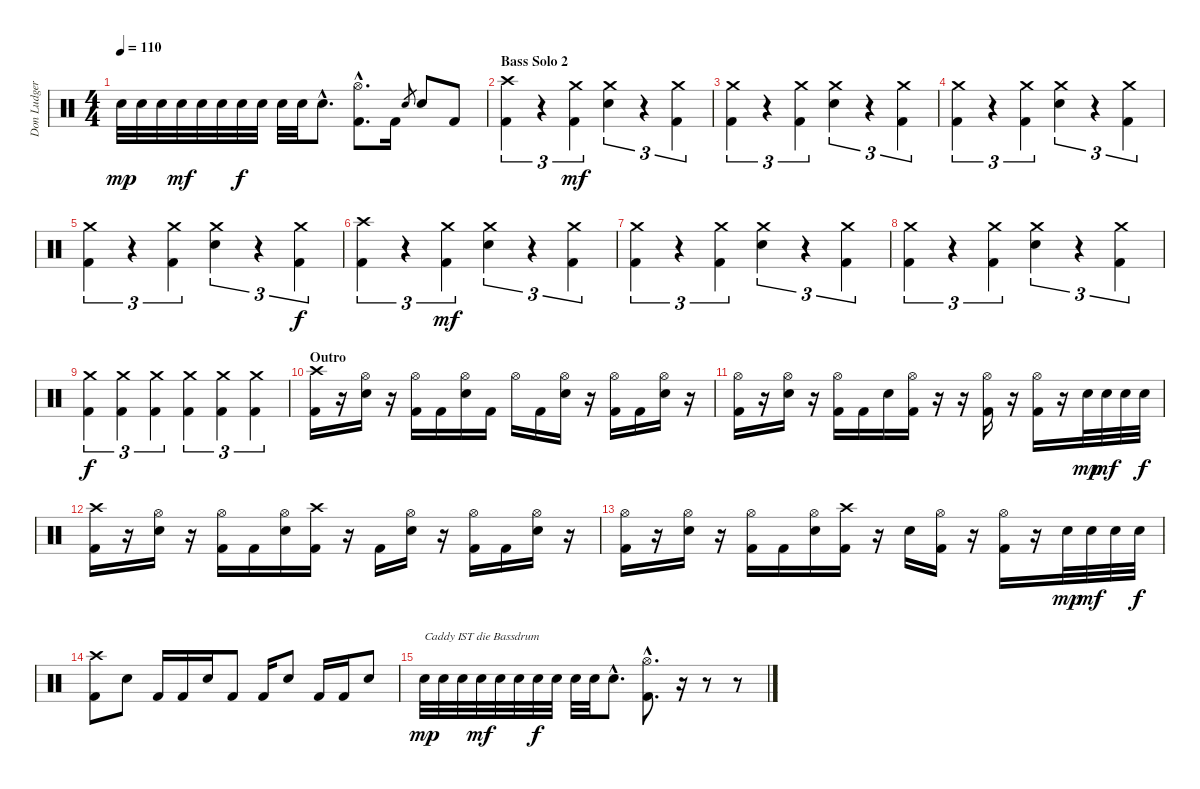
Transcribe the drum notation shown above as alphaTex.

\track ("Don Ludger" "Don Ludger") {instrument percussion}
\staff {score}
\articulation defaults
\ts (4 4)
\tempo 110
\clef neutral
\ks c "Electric Snare (hit)".32{dy mp} "Electric Snare (hit)".32 "Electric Snare (hit)".32 "Electric Snare (hit)".32{dy mf} "Electric Snare (hit)".32 "Electric Snare (hit)".32 "Electric Snare (hit)".32{dy f} "Electric Snare (hit)".32 "Electric Snare (hit)".32 "Electric Snare (hit)".32 "Electric Snare (hit)"{hac}.8{d}
("Hi-Hat (open)"{hac} "Kick (hit) 2"{hac}).8{d} "Kick (hit) 2".16 "Electric Snare (hit)".8{gr} "Electric Snare (hit)".8 "Kick (hit) 2".8 |
\section ("" "Bass Solo 2")
("Crash high (hit)" "Kick (hit) 2").4{tu (3 2)} r.4{tu (3 2)} ("Crash medium (hit)" "Kick (hit) 2").4{tu (3 2) dy mf} ("Crash medium (hit)" "Electric Snare (hit)").4{tu (3 2)} r.4{tu (3 2)} ("Crash medium (hit)" "Kick (hit) 2").4{tu (3 2)} |
("Crash medium (hit)" "Kick (hit) 2").4{tu (3 2)} r.4{tu (3 2)} ("Crash medium (hit)" "Kick (hit) 2").4{tu (3 2)} ("Crash medium (hit)" "Electric Snare (hit)").4{tu (3 2)} r.4{tu (3 2)} ("Crash medium (hit)" "Kick (hit) 2").4{tu (3 2)} |
("Crash medium (hit)" "Kick (hit) 2").4{tu (3 2)} r.4{tu (3 2)} ("Crash medium (hit)" "Kick (hit) 2").4{tu (3 2)} ("Crash medium (hit)" "Electric Snare (hit)").4{tu (3 2)} r.4{tu (3 2)} ("Crash medium (hit)" "Kick (hit) 2").4{tu (3 2)} |
("Crash medium (hit)" "Kick (hit) 2").4{tu (3 2)} r.4{tu (3 2)} ("Crash medium (hit)" "Kick (hit) 2").4{tu (3 2)} ("Crash medium (hit)" "Electric Snare (hit)").4{tu (3 2)} r.4{tu (3 2)} ("Crash medium (hit)" "Kick (hit) 2").4{tu (3 2) dy f} |
("Crash high (hit)" "Kick (hit) 2").4{tu (3 2)} r.4{tu (3 2)} ("Crash medium (hit)" "Kick (hit) 2").4{tu (3 2) dy mf} ("Crash medium (hit)" "Electric Snare (hit)").4{tu (3 2)} r.4{tu (3 2)} ("Crash medium (hit)" "Kick (hit) 2").4{tu (3 2)} |
("Crash medium (hit)" "Kick (hit) 2").4{tu (3 2)} r.4{tu (3 2)} ("Crash medium (hit)" "Kick (hit) 2").4{tu (3 2)} ("Crash medium (hit)" "Electric Snare (hit)").4{tu (3 2)} r.4{tu (3 2)} ("Crash medium (hit)" "Kick (hit) 2").4{tu (3 2)} |
("Crash medium (hit)" "Kick (hit) 2").4{tu (3 2)} r.4{tu (3 2)} ("Crash medium (hit)" "Kick (hit) 2").4{tu (3 2)} ("Crash medium (hit)" "Electric Snare (hit)").4{tu (3 2)} r.4{tu (3 2)} ("Crash medium (hit)" "Kick (hit) 2").4{tu (3 2)} |
("Crash medium (hit)" "Kick (hit) 2").4{tu (3 2) dy f} ("Crash medium (hit)" "Kick (hit) 2").4{tu (3 2)} ("Crash medium (hit)" "Kick (hit) 2").4{tu (3 2)} ("Crash medium (hit)" "Kick (hit) 2").4{tu (3 2)} ("Crash medium (hit)" "Kick (hit) 2").4{tu (3 2)} ("Crash medium (hit)" "Kick (hit) 2").4{tu (3 2)} |
\section ("" "Outro")
("Crash high (hit)" "Kick (hit) 2").16 r.16 ("Hi-Hat (open)" "Electric Snare (hit)").16 r.16 ("Hi-Hat (open)" "Kick (hit) 2").16 "Kick (hit) 2".16 ("Hi-Hat (open)" "Electric Snare (hit)").16 "Kick (hit) 2".16 "Hi-Hat (open)".16 "Kick (hit) 2".16 ("Hi-Hat (open)" "Electric Snare (hit)").16 r.16 ("Hi-Hat (open)" "Kick (hit) 2").16 "Kick (hit) 2".16 ("Hi-Hat (open)" "Electric Snare (hit)").16 r.16 |
("Hi-Hat (open)" "Kick (hit) 2").16 r.16 ("Hi-Hat (open)" "Electric Snare (hit)").16 r.16 ("Hi-Hat (open)" "Kick (hit) 2").16 "Kick (hit) 2".16 "Electric Snare (hit)".16 ("Hi-Hat (open)" "Kick (hit) 2").16 r.16 r.16 ("Hi-Hat (open)" "Kick (hit) 2").16 r.16 ("Hi-Hat (open)" "Kick (hit) 2").16 r.16 "Electric Snare (hit)".32{dy mp} "Electric Snare (hit)".32{dy mf} "Electric Snare (hit)".32 "Electric Snare (hit)".32{dy f} |
("Crash high (hit)" "Kick (hit) 2").16 r.16 ("Hi-Hat (open)" "Electric Snare (hit)").16 r.16 ("Hi-Hat (open)" "Kick (hit) 2").16 "Kick (hit) 2".16 ("Hi-Hat (open)" "Electric Snare (hit)").16 ("Crash high (hit)" "Kick (hit) 2").16 r.16 "Kick (hit) 2".16 ("Hi-Hat (open)" "Electric Snare (hit)").16 r.16 ("Hi-Hat (open)" "Kick (hit) 2").16 "Kick (hit) 2".16 ("Hi-Hat (open)" "Electric Snare (hit)").16 r.16 |
("Hi-Hat (open)" "Kick (hit) 2").16 r.16 ("Hi-Hat (open)" "Electric Snare (hit)").16 r.16 ("Hi-Hat (open)" "Kick (hit) 2").16 "Kick (hit) 2".16 ("Hi-Hat (open)" "Electric Snare (hit)").16 ("Crash high (hit)" "Kick (hit) 2").16 r.16 "Electric Snare (hit)".16 ("Hi-Hat (open)" "Kick (hit) 2").16 r.16 ("Hi-Hat (open)" "Kick (hit) 2").16 r.16 "Electric Snare (hit)".32{dy mp} "Electric Snare (hit)".32{dy mf} "Electric Snare (hit)".32 "Electric Snare (hit)".32{dy f} |
("Crash high (hit)" "Kick (hit) 2").8 "Electric Snare (hit)".8 "Kick (hit) 2".16 "Kick (hit) 2".16 "Electric Snare (hit)".16 "Kick (hit) 2".8 "Kick (hit) 2".16 "Electric Snare (hit)".8 "Kick (hit) 2".16 "Kick (hit) 2".16 "Electric Snare (hit)".8 |
"Electric Snare (hit)".32{txt "Caddy IST die Bassdrum" dy mp} "Electric Snare (hit)".32 "Electric Snare (hit)".32 "Electric Snare (hit)".32{dy mf} "Electric Snare (hit)".32 "Electric Snare (hit)".32 "Electric Snare (hit)".32{dy f} "Electric Snare (hit)".32 "Electric Snare (hit)".32 "Electric Snare (hit)".32 "Electric Snare (hit)"{hac}.8{d} ("Hi-Hat (open)"{hac} "Kick (hit) 2"{hac}).8{d} r.16 r.8 r.8
